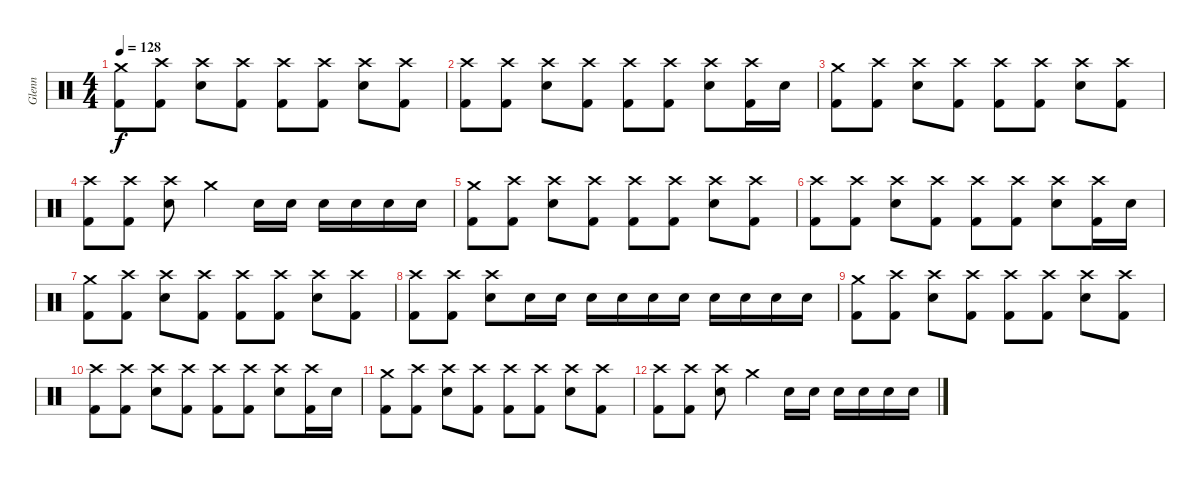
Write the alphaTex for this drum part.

\track ("Glenn" "Glenn") {instrument percussion}
\staff {score}
\articulation defaults
\ts (4 4)
\tempo 128
\clef neutral
\ks c
("Crash medium (hit)" "Kick (hit) 2").8{dy f} ("Crash high (hit)" "Kick (hit) 2").8 ("Crash high (hit)" "Electric Snare (hit)").8 ("Crash high (hit)" "Kick (hit) 2").8 ("Crash high (hit)" "Kick (hit) 2").8 ("Crash high (hit)" "Kick (hit) 2").8 ("Crash high (hit)" "Electric Snare (hit)").8 ("Crash high (hit)" "Kick (hit) 2").8 |
("Crash high (hit)" "Kick (hit) 2").8 ("Crash high (hit)" "Kick (hit) 2").8 ("Crash high (hit)" "Electric Snare (hit)").8 ("Crash high (hit)" "Kick (hit) 2").8 ("Crash high (hit)" "Kick (hit) 2").8 ("Crash high (hit)" "Kick (hit) 2").8 ("Crash high (hit)" "Electric Snare (hit)").8 ("Crash high (hit)" "Kick (hit) 2").16 "Electric Snare (hit)".16 |
("Crash medium (hit)" "Kick (hit) 2").8 ("Crash high (hit)" "Kick (hit) 2").8 ("Crash high (hit)" "Electric Snare (hit)").8 ("Crash high (hit)" "Kick (hit) 2").8 ("Crash high (hit)" "Kick (hit) 2").8 ("Crash high (hit)" "Kick (hit) 2").8 ("Crash high (hit)" "Electric Snare (hit)").8 ("Crash high (hit)" "Kick (hit) 2").8 |
("Crash high (hit)" "Kick (hit) 2").8 ("Crash high (hit)" "Kick (hit) 2").8 ("Crash high (hit)" "Electric Snare (hit)").8 "Crash medium (hit)".4 "Electric Snare (hit)".16 "Electric Snare (hit)".16 "Electric Snare (hit)".16 "Electric Snare (hit)".16 "Electric Snare (hit)".16 "Electric Snare (hit)".16 |
("Crash medium (hit)" "Kick (hit) 2").8 ("Crash high (hit)" "Kick (hit) 2").8 ("Crash high (hit)" "Electric Snare (hit)").8 ("Crash high (hit)" "Kick (hit) 2").8 ("Crash high (hit)" "Kick (hit) 2").8 ("Crash high (hit)" "Kick (hit) 2").8 ("Crash high (hit)" "Electric Snare (hit)").8 ("Crash high (hit)" "Kick (hit) 2").8 |
("Crash high (hit)" "Kick (hit) 2").8 ("Crash high (hit)" "Kick (hit) 2").8 ("Crash high (hit)" "Electric Snare (hit)").8 ("Crash high (hit)" "Kick (hit) 2").8 ("Crash high (hit)" "Kick (hit) 2").8 ("Crash high (hit)" "Kick (hit) 2").8 ("Crash high (hit)" "Electric Snare (hit)").8 ("Crash high (hit)" "Kick (hit) 2").16 "Electric Snare (hit)".16 |
("Crash medium (hit)" "Kick (hit) 2").8 ("Crash high (hit)" "Kick (hit) 2").8 ("Crash high (hit)" "Electric Snare (hit)").8 ("Crash high (hit)" "Kick (hit) 2").8 ("Crash high (hit)" "Kick (hit) 2").8 ("Crash high (hit)" "Kick (hit) 2").8 ("Crash high (hit)" "Electric Snare (hit)").8 ("Crash high (hit)" "Kick (hit) 2").8 |
("Crash high (hit)" "Kick (hit) 2").8 ("Crash high (hit)" "Kick (hit) 2").8 ("Crash high (hit)" "Electric Snare (hit)").8 "Electric Snare (hit)".16 "Electric Snare (hit)".16 "Electric Snare (hit)".16 "Electric Snare (hit)".16 "Electric Snare (hit)".16 "Electric Snare (hit)".16 "Electric Snare (hit)".16 "Electric Snare (hit)".16 "Electric Snare (hit)".16 "Electric Snare (hit)".16 |
("Crash medium (hit)" "Kick (hit) 2").8 ("Crash high (hit)" "Kick (hit) 2").8 ("Crash high (hit)" "Electric Snare (hit)").8 ("Crash high (hit)" "Kick (hit) 2").8 ("Crash high (hit)" "Kick (hit) 2").8 ("Crash high (hit)" "Kick (hit) 2").8 ("Crash high (hit)" "Electric Snare (hit)").8 ("Crash high (hit)" "Kick (hit) 2").8 |
("Crash high (hit)" "Kick (hit) 2").8 ("Crash high (hit)" "Kick (hit) 2").8 ("Crash high (hit)" "Electric Snare (hit)").8 ("Crash high (hit)" "Kick (hit) 2").8 ("Crash high (hit)" "Kick (hit) 2").8 ("Crash high (hit)" "Kick (hit) 2").8 ("Crash high (hit)" "Electric Snare (hit)").8 ("Crash high (hit)" "Kick (hit) 2").16 "Electric Snare (hit)".16 |
("Crash medium (hit)" "Kick (hit) 2").8 ("Crash high (hit)" "Kick (hit) 2").8 ("Crash high (hit)" "Electric Snare (hit)").8 ("Crash high (hit)" "Kick (hit) 2").8 ("Crash high (hit)" "Kick (hit) 2").8 ("Crash high (hit)" "Kick (hit) 2").8 ("Crash high (hit)" "Electric Snare (hit)").8 ("Crash high (hit)" "Kick (hit) 2").8 |
("Crash high (hit)" "Kick (hit) 2").8 ("Crash high (hit)" "Kick (hit) 2").8 ("Crash high (hit)" "Electric Snare (hit)").8 "Crash medium (hit)".4 "Electric Snare (hit)".16 "Electric Snare (hit)".16 "Electric Snare (hit)".16 "Electric Snare (hit)".16 "Electric Snare (hit)".16 "Electric Snare (hit)".16
